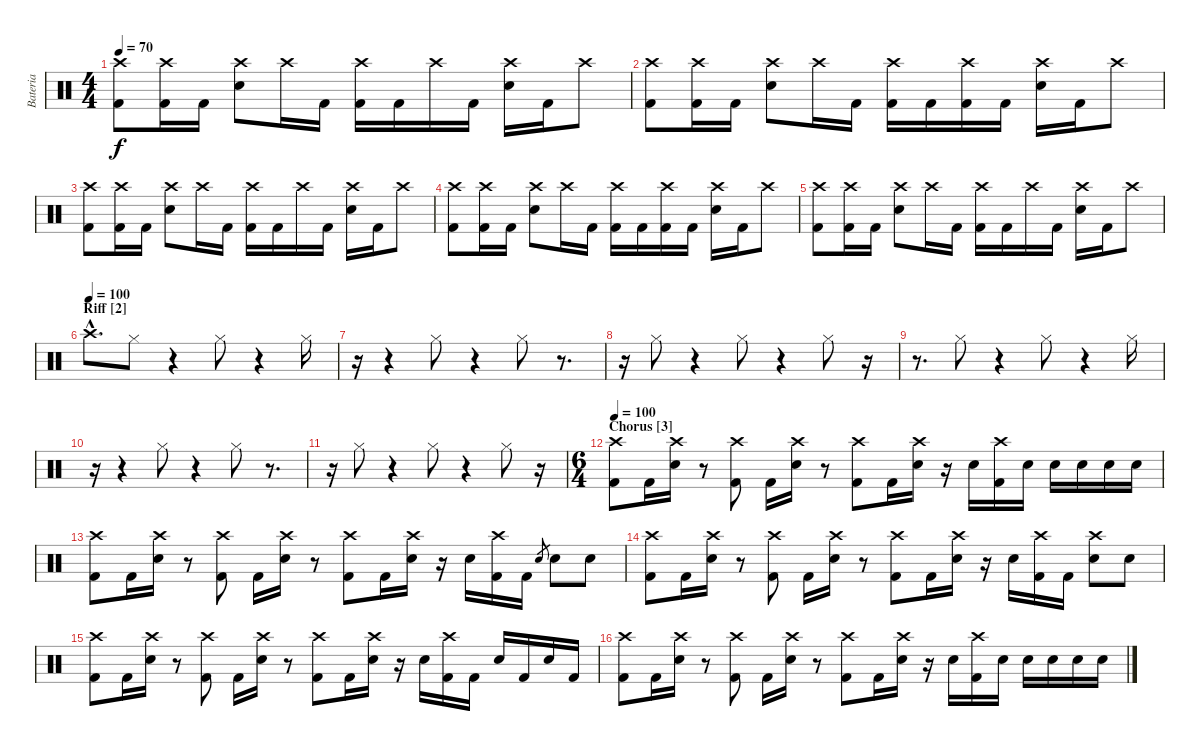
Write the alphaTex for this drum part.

\track ("Bateria" "Bateria") {instrument percussion}
\staff {score}
\articulation defaults
\ts (4 4)
\tempo 70
\clef neutral
\ks c
("Crash high (hit)" "Kick (hit) 2").8{dy f} ("Crash high (hit)" "Kick (hit) 2").16 "Kick (hit) 2".16 ("Crash high (hit)" "Electric Snare (hit)").8 "Crash high (hit)".16 "Kick (hit) 2".16 ("Crash high (hit)" "Kick (hit) 2").16 "Kick (hit) 2".16 "Crash high (hit)".16 "Kick (hit) 2".16 ("Crash high (hit)" "Electric Snare (hit)").16 "Kick (hit) 2".16 "Crash high (hit)".8 |
("Crash high (hit)" "Kick (hit) 2").8 ("Crash high (hit)" "Kick (hit) 2").16 "Kick (hit) 2".16 ("Crash high (hit)" "Electric Snare (hit)").8 "Crash high (hit)".16 "Kick (hit) 2".16 ("Crash high (hit)" "Kick (hit) 2").16 "Kick (hit) 2".16 ("Crash high (hit)" "Kick (hit) 2").16 "Kick (hit) 2".16 ("Crash high (hit)" "Electric Snare (hit)").16 "Kick (hit) 2".16 "Crash high (hit)".8 |
("Crash high (hit)" "Kick (hit) 2").8 ("Crash high (hit)" "Kick (hit) 2").16 "Kick (hit) 2".16 ("Crash high (hit)" "Electric Snare (hit)").8 "Crash high (hit)".16 "Kick (hit) 2".16 ("Crash high (hit)" "Kick (hit) 2").16 "Kick (hit) 2".16 "Crash high (hit)".16 "Kick (hit) 2".16 ("Crash high (hit)" "Electric Snare (hit)").16 "Kick (hit) 2".16 "Crash high (hit)".8 |
("Crash high (hit)" "Kick (hit) 2").8 ("Crash high (hit)" "Kick (hit) 2").16 "Kick (hit) 2".16 ("Crash high (hit)" "Electric Snare (hit)").8 "Crash high (hit)".16 "Kick (hit) 2".16 ("Crash high (hit)" "Kick (hit) 2").16 "Kick (hit) 2".16 ("Crash high (hit)" "Kick (hit) 2").16 "Kick (hit) 2".16 ("Crash high (hit)" "Electric Snare (hit)").16 "Kick (hit) 2".16 "Crash high (hit)".8 |
("Crash high (hit)" "Kick (hit) 2").8 ("Crash high (hit)" "Kick (hit) 2").16 "Kick (hit) 2".16 ("Crash high (hit)" "Electric Snare (hit)").8 "Crash high (hit)".16 "Kick (hit) 2".16 ("Crash high (hit)" "Kick (hit) 2").16 "Kick (hit) 2".16 "Crash high (hit)".16 "Kick (hit) 2".16 ("Crash high (hit)" "Electric Snare (hit)").16 "Kick (hit) 2".16 "Crash high (hit)".8 |
\section ("" "Riff [2]")
\tempo (100)
"Crash high (hit)"{hac}.8{d} "Hi-Hat (closed)".8 r.4 "Hi-Hat (closed)".8 r.4 "Hi-Hat (closed)".16 |
r.16 r.4 "Hi-Hat (closed)".8 r.4 "Hi-Hat (closed)".8 r.8{d} |
r.16 "Hi-Hat (closed)".8 r.4 "Hi-Hat (closed)".8 r.4 "Hi-Hat (closed)".8 r.16 |
r.8{d} "Hi-Hat (closed)".8 r.4 "Hi-Hat (closed)".8 r.4 "Hi-Hat (closed)".16 |
r.16 r.4 "Hi-Hat (closed)".8 r.4 "Hi-Hat (closed)".8 r.8{d} |
r.16 "Hi-Hat (closed)".8 r.4 "Hi-Hat (closed)".8 r.4 "Hi-Hat (closed)".8 r.16 |
\ts (6 4)
\section ("" "Chorus [3]")
\tempo 100
("Crash high (hit)" "Kick (hit) 2").8 "Kick (hit) 2".16 ("Crash high (hit)" "Electric Snare (hit)").16 r.8 ("Crash high (hit)" "Kick (hit) 2").8 "Kick (hit) 2".16 ("Crash high (hit)" "Electric Snare (hit)").16 r.8 ("Crash high (hit)" "Kick (hit) 2").8 "Kick (hit) 2".16 ("Crash high (hit)" "Electric Snare (hit)").16 r.16 "Electric Snare (hit)".16 ("Crash high (hit)" "Kick (hit) 2").16 "Electric Snare (hit)".16 "Electric Snare (hit)".16 "Electric Snare (hit)".16 "Electric Snare (hit)".16 "Electric Snare (hit)".16 |
("Crash high (hit)" "Kick (hit) 2").8 "Kick (hit) 2".16 ("Crash high (hit)" "Electric Snare (hit)").16 r.8 ("Crash high (hit)" "Kick (hit) 2").8 "Kick (hit) 2".16 ("Crash high (hit)" "Electric Snare (hit)").16 r.8 ("Crash high (hit)" "Kick (hit) 2").8 "Kick (hit) 2".16 ("Crash high (hit)" "Electric Snare (hit)").16 r.16 "Electric Snare (hit)".16 ("Crash high (hit)" "Kick (hit) 2").16 "Kick (hit) 2".16 "Electric Snare (hit)".8{gr} "Electric Snare (hit)".8 "Electric Snare (hit)".8 |
("Crash high (hit)" "Kick (hit) 2").8 "Kick (hit) 2".16 ("Crash high (hit)" "Electric Snare (hit)").16 r.8 ("Crash high (hit)" "Kick (hit) 2").8 "Kick (hit) 2".16 ("Crash high (hit)" "Electric Snare (hit)").16 r.8 ("Crash high (hit)" "Kick (hit) 2").8 "Kick (hit) 2".16 ("Crash high (hit)" "Electric Snare (hit)").16 r.16 "Electric Snare (hit)".16 ("Crash high (hit)" "Kick (hit) 2").16 "Kick (hit) 2".16 ("Crash high (hit)" "Electric Snare (hit)").8 "Electric Snare (hit)".8 |
("Crash high (hit)" "Kick (hit) 2").8 "Kick (hit) 2".16 ("Crash high (hit)" "Electric Snare (hit)").16 r.8 ("Crash high (hit)" "Kick (hit) 2").8 "Kick (hit) 2".16 ("Crash high (hit)" "Electric Snare (hit)").16 r.8 ("Crash high (hit)" "Kick (hit) 2").8 "Kick (hit) 2".16 ("Crash high (hit)" "Electric Snare (hit)").16 r.16 "Electric Snare (hit)".16 ("Crash high (hit)" "Kick (hit) 2").16 "Kick (hit) 2".16 "Electric Snare (hit)".16 "Kick (hit) 2".16 "Electric Snare (hit)".16 "Kick (hit) 2".16 |
("Crash high (hit)" "Kick (hit) 2").8 "Kick (hit) 2".16 ("Crash high (hit)" "Electric Snare (hit)").16 r.8 ("Crash high (hit)" "Kick (hit) 2").8 "Kick (hit) 2".16 ("Crash high (hit)" "Electric Snare (hit)").16 r.8 ("Crash high (hit)" "Kick (hit) 2").8 "Kick (hit) 2".16 ("Crash high (hit)" "Electric Snare (hit)").16 r.16 "Electric Snare (hit)".16 ("Crash high (hit)" "Kick (hit) 2").16 "Electric Snare (hit)".16 "Electric Snare (hit)".16 "Electric Snare (hit)".16 "Electric Snare (hit)".16 "Electric Snare (hit)".16
